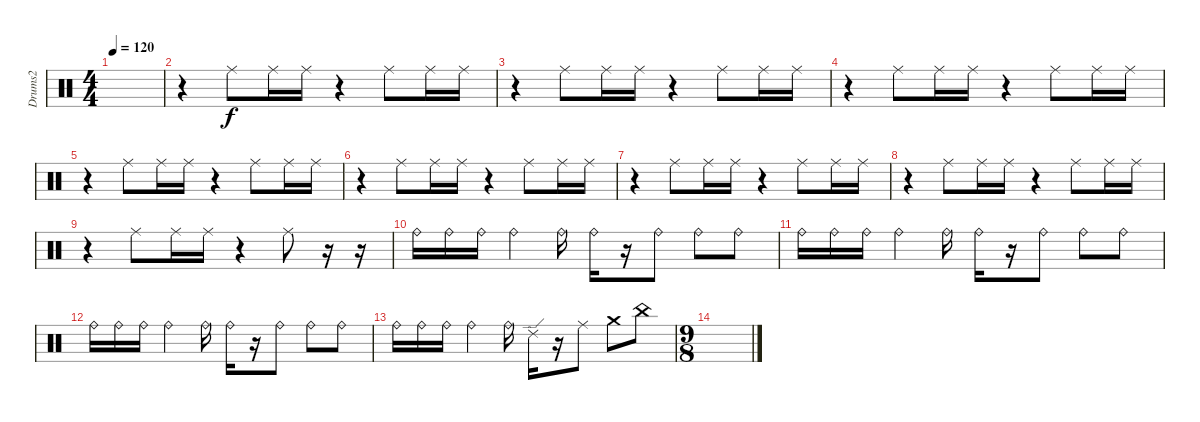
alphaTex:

\track ("Drums2" "Drums2") {instrument percussion}
\staff {score}
\articulation defaults
\ts (4 4)
\tempo 120
\clef neutral
\ks c
|
r.4 "Ride (middle)".8 "Ride (middle)".16 "Ride (middle)".16 r.4 "Ride (middle)".8 "Ride (middle)".16 "Ride (middle)".16 |
r.4 "Ride (middle)".8 "Ride (middle)".16 "Ride (middle)".16 r.4 "Ride (middle)".8 "Ride (middle)".16 "Ride (middle)".16 |
r.4 "Ride (middle)".8 "Ride (middle)".16 "Ride (middle)".16 r.4 "Ride (middle)".8 "Ride (middle)".16 "Ride (middle)".16 |
r.4 "Ride (middle)".8 "Ride (middle)".16 "Ride (middle)".16 r.4 "Ride (middle)".8 "Ride (middle)".16 "Ride (middle)".16 |
r.4 "Ride (middle)".8 "Ride (middle)".16 "Ride (middle)".16 r.4 "Ride (middle)".8 "Ride (middle)".16 "Ride (middle)".16 |
r.4 "Ride (middle)".8 "Ride (middle)".16 "Ride (middle)".16 r.4 "Ride (middle)".8 "Ride (middle)".16 "Ride (middle)".16 |
r.4 "Ride (middle)".8 "Ride (middle)".16 "Ride (middle)".16 r.4 "Ride (middle)".8 "Ride (middle)".16 "Ride (middle)".16 |
r.4 "Ride (middle)".8 "Ride (middle)".16 "Ride (middle)".16 r.4 "Ride (middle)".8 r.16 r.16 |
"Ride (bell)".16 "Ride (bell)".16 "Ride (bell)".16 "Ride (bell)".4 "Ride (bell)".16 "Ride (bell)".16 r.16 "Ride (bell)".8 "Ride (bell)".8 "Ride (bell)".8 |
"Ride (bell)".16 "Ride (bell)".16 "Ride (bell)".16 "Ride (bell)".4 "Ride (bell)".16 "Ride (bell)".16 r.16 "Ride (bell)".8 "Ride (bell)".8 "Ride (bell)".8 |
"Ride (bell)".16 "Ride (bell)".16 "Ride (bell)".16 "Ride (bell)".4 "Ride (bell)".16 "Ride (bell)".16 r.16 "Ride (bell)".8 "Ride (bell)".8 "Ride (bell)".8 |
"Ride (bell)".16 "Ride (bell)".16 "Ride (bell)".16 "Ride (bell)".4 "Ride (bell)".16 "Ride (edge) 2".16 r.16 "Ride (middle)".8 "Crash medium (hit)".8 "China (hit)".8 |
\ts (9 8)
